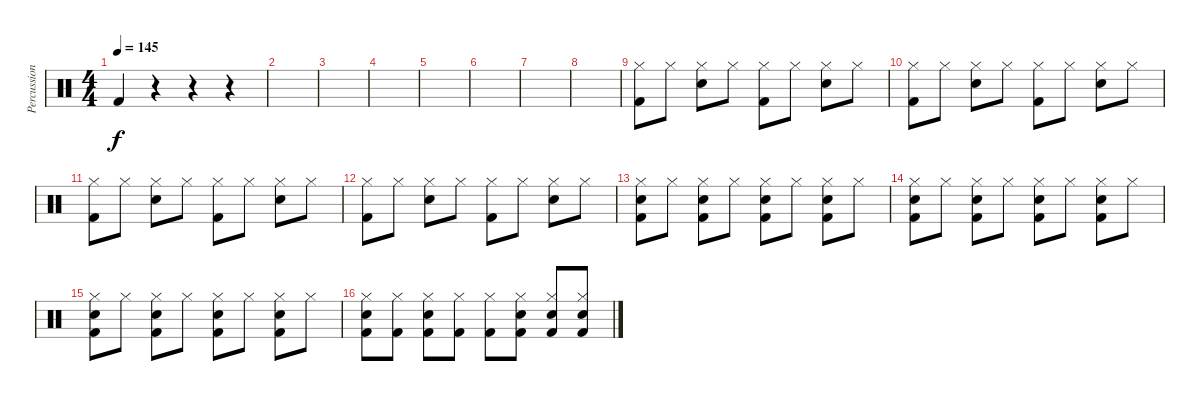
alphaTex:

\track ("Percussion" "Percussion") {instrument percussion}
\staff {score}
\articulation defaults
\ts (4 4)
\tempo 145
\clef neutral
\ks c "Kick (hit) 2".4{dy f}
r.4 r.4 r.4 |
|
|
|
|
|
|
|
("Hi-Hat (closed)" "Kick (hit) 2").8 "Hi-Hat (closed)".8 ("Hi-Hat (closed)" "Snare (hit) 2").8 "Hi-Hat (closed)".8 ("Hi-Hat (closed)" "Kick (hit) 2").8 "Hi-Hat (closed)".8 ("Hi-Hat (closed)" "Snare (hit) 2").8 "Hi-Hat (closed)".8 |
("Hi-Hat (closed)" "Kick (hit) 2").8 "Hi-Hat (closed)".8 ("Hi-Hat (closed)" "Snare (hit) 2").8 "Hi-Hat (closed)".8 ("Hi-Hat (closed)" "Kick (hit) 2").8 "Hi-Hat (closed)".8 ("Hi-Hat (closed)" "Snare (hit) 2").8 "Hi-Hat (closed)".8 |
("Hi-Hat (closed)" "Kick (hit) 2").8 "Hi-Hat (closed)".8 ("Hi-Hat (closed)" "Snare (hit) 2").8 "Hi-Hat (closed)".8 ("Hi-Hat (closed)" "Kick (hit) 2").8 "Hi-Hat (closed)".8 ("Hi-Hat (closed)" "Snare (hit) 2").8 "Hi-Hat (closed)".8 |
("Hi-Hat (closed)" "Kick (hit) 2").8 "Hi-Hat (closed)".8 ("Hi-Hat (closed)" "Snare (hit) 2").8 "Hi-Hat (closed)".8 ("Hi-Hat (closed)" "Kick (hit) 2").8 "Hi-Hat (closed)".8 ("Hi-Hat (closed)" "Snare (hit) 2").8 "Hi-Hat (closed)".8 |
("Hi-Hat (closed)" "Snare (hit) 2" "Kick (hit) 2").8 "Hi-Hat (closed)".8 ("Hi-Hat (closed)" "Snare (hit) 2" "Kick (hit) 2").8 "Hi-Hat (closed)".8 ("Hi-Hat (closed)" "Snare (hit) 2" "Kick (hit) 2").8 "Hi-Hat (closed)".8 ("Hi-Hat (closed)" "Snare (hit) 2" "Kick (hit) 2").8 "Hi-Hat (closed)".8 |
("Hi-Hat (closed)" "Snare (hit) 2" "Kick (hit) 2").8 "Hi-Hat (closed)".8 ("Hi-Hat (closed)" "Snare (hit) 2" "Kick (hit) 2").8 "Hi-Hat (closed)".8 ("Hi-Hat (closed)" "Snare (hit) 2" "Kick (hit) 2").8 "Hi-Hat (closed)".8 ("Hi-Hat (closed)" "Snare (hit) 2" "Kick (hit) 2").8 "Hi-Hat (closed)".8 |
("Hi-Hat (closed)" "Snare (hit) 2" "Kick (hit) 2").8 "Hi-Hat (closed)".8 ("Hi-Hat (closed)" "Snare (hit) 2" "Kick (hit) 2").8 "Hi-Hat (closed)".8 ("Hi-Hat (closed)" "Snare (hit) 2" "Kick (hit) 2").8 "Hi-Hat (closed)".8 ("Hi-Hat (closed)" "Snare (hit) 2" "Kick (hit) 2").8 "Hi-Hat (closed)".8 |
("Hi-Hat (closed)" "Snare (hit) 2" "Kick (hit) 2").8 ("Hi-Hat (closed)" "Kick (hit) 2").8 ("Hi-Hat (closed)" "Snare (hit) 2" "Kick (hit) 2").8 ("Hi-Hat (closed)" "Kick (hit) 2").8 ("Hi-Hat (closed)" "Kick (hit) 2").8 ("Hi-Hat (closed)" "Snare (hit) 2" "Kick (hit) 2").8 ("Hi-Hat (closed)" "Snare (hit) 2" "Kick (hit) 2").8 ("Hi-Hat (closed)" "Snare (hit) 2" "Kick (hit) 2").8
